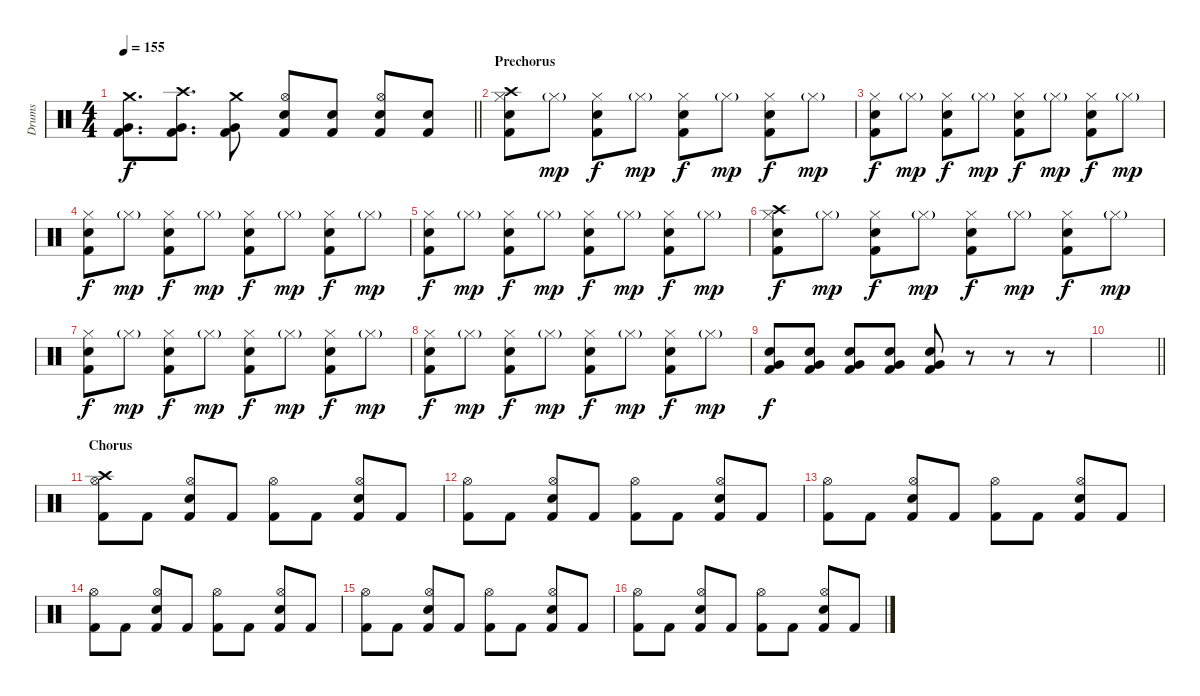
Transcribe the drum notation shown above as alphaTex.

\track ("Drums" "Drums") {instrument percussion}
\staff {score}
\articulation defaults
\ts (4 4)
\tempo 155
\clef neutral
\barLineRight lightlight
\ks c
("Crash medium (hit)" "Very Low Tom (hit)" "Kick (hit) 2").8{d dy f} ("Crash high (hit)" "Very Low Tom (hit)" "Kick (hit) 2").8{d} ("Crash medium (hit)" "Very Low Tom (hit)" "Kick (hit) 2").8 ("Hi-Hat (open)" "Snare (hit) 2" "Kick (hit) 2").8 ("Snare (hit) 2" "Kick (hit) 2").8 ("Hi-Hat (open)" "Snare (hit) 2" "Kick (hit) 2").8 ("Snare (hit) 2" "Kick (hit) 2").8 |
\section ("" "Prechorus")
("Crash high (hit)" "Hand Clap (hit)" "Hi-Hat (closed)" "Kick (hit) 2").8 "Hi-Hat (closed)"{g}.8{dy mp} ("Hand Clap (hit)" "Hi-Hat (closed)" "Kick (hit) 2").8{dy f} "Hi-Hat (closed)"{g}.8{dy mp} ("Hand Clap (hit)" "Hi-Hat (closed)" "Kick (hit) 2").8{dy f} "Hi-Hat (closed)"{g}.8{dy mp} ("Hand Clap (hit)" "Hi-Hat (closed)" "Kick (hit) 2").8{dy f} "Hi-Hat (closed)"{g}.8{dy mp} |
("Hand Clap (hit)" "Hi-Hat (closed)" "Kick (hit) 2").8{dy f} "Hi-Hat (closed)"{g}.8{dy mp} ("Hand Clap (hit)" "Hi-Hat (closed)" "Kick (hit) 2").8{dy f} "Hi-Hat (closed)"{g}.8{dy mp} ("Hand Clap (hit)" "Hi-Hat (closed)" "Kick (hit) 2").8{dy f} "Hi-Hat (closed)"{g}.8{dy mp} ("Hand Clap (hit)" "Hi-Hat (closed)" "Kick (hit) 2").8{dy f} "Hi-Hat (closed)"{g}.8{dy mp} |
("Hand Clap (hit)" "Hi-Hat (closed)" "Kick (hit) 2").8{dy f} "Hi-Hat (closed)"{g}.8{dy mp} ("Hand Clap (hit)" "Hi-Hat (closed)" "Kick (hit) 2").8{dy f} "Hi-Hat (closed)"{g}.8{dy mp} ("Hand Clap (hit)" "Hi-Hat (closed)" "Kick (hit) 2").8{dy f} "Hi-Hat (closed)"{g}.8{dy mp} ("Hand Clap (hit)" "Hi-Hat (closed)" "Kick (hit) 2").8{dy f} "Hi-Hat (closed)"{g}.8{dy mp} |
("Hand Clap (hit)" "Hi-Hat (closed)" "Kick (hit) 2").8{dy f} "Hi-Hat (closed)"{g}.8{dy mp} ("Hand Clap (hit)" "Hi-Hat (closed)" "Kick (hit) 2").8{dy f} "Hi-Hat (closed)"{g}.8{dy mp} ("Hand Clap (hit)" "Hi-Hat (closed)" "Kick (hit) 2").8{dy f} "Hi-Hat (closed)"{g}.8{dy mp} ("Hand Clap (hit)" "Hi-Hat (closed)" "Kick (hit) 2").8{dy f} "Hi-Hat (closed)"{g}.8{dy mp} |
("Crash high (hit)" "Hand Clap (hit)" "Hi-Hat (closed)" "Kick (hit) 2").8{dy f} "Hi-Hat (closed)"{g}.8{dy mp} ("Hand Clap (hit)" "Hi-Hat (closed)" "Kick (hit) 2").8{dy f} "Hi-Hat (closed)"{g}.8{dy mp} ("Hand Clap (hit)" "Hi-Hat (closed)" "Kick (hit) 2").8{dy f} "Hi-Hat (closed)"{g}.8{dy mp} ("Hand Clap (hit)" "Hi-Hat (closed)" "Kick (hit) 2").8{dy f} "Hi-Hat (closed)"{g}.8{dy mp} |
("Hand Clap (hit)" "Hi-Hat (closed)" "Kick (hit) 2").8{dy f} "Hi-Hat (closed)"{g}.8{dy mp} ("Hand Clap (hit)" "Hi-Hat (closed)" "Kick (hit) 2").8{dy f} "Hi-Hat (closed)"{g}.8{dy mp} ("Hand Clap (hit)" "Hi-Hat (closed)" "Kick (hit) 2").8{dy f} "Hi-Hat (closed)"{g}.8{dy mp} ("Hand Clap (hit)" "Hi-Hat (closed)" "Kick (hit) 2").8{dy f} "Hi-Hat (closed)"{g}.8{dy mp} |
("Hand Clap (hit)" "Hi-Hat (closed)" "Kick (hit) 2").8{dy f} "Hi-Hat (closed)"{g}.8{dy mp} ("Hand Clap (hit)" "Hi-Hat (closed)" "Kick (hit) 2").8{dy f} "Hi-Hat (closed)"{g}.8{dy mp} ("Hand Clap (hit)" "Hi-Hat (closed)" "Kick (hit) 2").8{dy f} "Hi-Hat (closed)"{g}.8{dy mp} ("Hand Clap (hit)" "Hi-Hat (closed)" "Kick (hit) 2").8{dy f} "Hi-Hat (closed)"{g}.8{dy mp} |
("Hand Clap (hit)" "Very Low Tom (hit)" "Kick (hit) 2").8{dy f} ("Hand Clap (hit)" "Very Low Tom (hit)" "Kick (hit) 2").8 ("Hand Clap (hit)" "Very Low Tom (hit)" "Kick (hit) 2").8 ("Hand Clap (hit)" "Very Low Tom (hit)" "Kick (hit) 2").8 ("Hand Clap (hit)" "Very Low Tom (hit)" "Kick (hit) 2").8 r.8 r.8 r.8 |
\barLineRight lightlight
|
\section ("" "Chorus")
("Crash high (hit)" "Hi-Hat (open)" "Kick (hit) 2").8 "Kick (hit) 2".8 ("Hi-Hat (open)" "Snare (hit) 2" "Kick (hit) 2").8 "Kick (hit) 2".8 ("Hi-Hat (open)" "Kick (hit) 2").8 "Kick (hit) 2".8 ("Hi-Hat (open)" "Snare (hit) 2" "Kick (hit) 2").8 "Kick (hit) 2".8 |
("Hi-Hat (open)" "Kick (hit) 2").8 "Kick (hit) 2".8 ("Hi-Hat (open)" "Snare (hit) 2" "Kick (hit) 2").8 "Kick (hit) 2".8 ("Hi-Hat (open)" "Kick (hit) 2").8 "Kick (hit) 2".8 ("Hi-Hat (open)" "Snare (hit) 2" "Kick (hit) 2").8 "Kick (hit) 2".8 |
("Hi-Hat (open)" "Kick (hit) 2").8 "Kick (hit) 2".8 ("Hi-Hat (open)" "Snare (hit) 2" "Kick (hit) 2").8 "Kick (hit) 2".8 ("Hi-Hat (open)" "Kick (hit) 2").8 "Kick (hit) 2".8 ("Hi-Hat (open)" "Snare (hit) 2" "Kick (hit) 2").8 "Kick (hit) 2".8 |
("Hi-Hat (open)" "Kick (hit) 2").8 "Kick (hit) 2".8 ("Hi-Hat (open)" "Snare (hit) 2" "Kick (hit) 2").8 "Kick (hit) 2".8 ("Hi-Hat (open)" "Kick (hit) 2").8 "Kick (hit) 2".8 ("Hi-Hat (open)" "Snare (hit) 2" "Kick (hit) 2").8 "Kick (hit) 2".8 |
("Hi-Hat (open)" "Kick (hit) 2").8 "Kick (hit) 2".8 ("Hi-Hat (open)" "Snare (hit) 2" "Kick (hit) 2").8 "Kick (hit) 2".8 ("Hi-Hat (open)" "Kick (hit) 2").8 "Kick (hit) 2".8 ("Hi-Hat (open)" "Snare (hit) 2" "Kick (hit) 2").8 "Kick (hit) 2".8 |
("Hi-Hat (open)" "Kick (hit) 2").8 "Kick (hit) 2".8 ("Hi-Hat (open)" "Snare (hit) 2" "Kick (hit) 2").8 "Kick (hit) 2".8 ("Hi-Hat (open)" "Kick (hit) 2").8 "Kick (hit) 2".8 ("Hi-Hat (open)" "Snare (hit) 2" "Kick (hit) 2").8 "Kick (hit) 2".8
